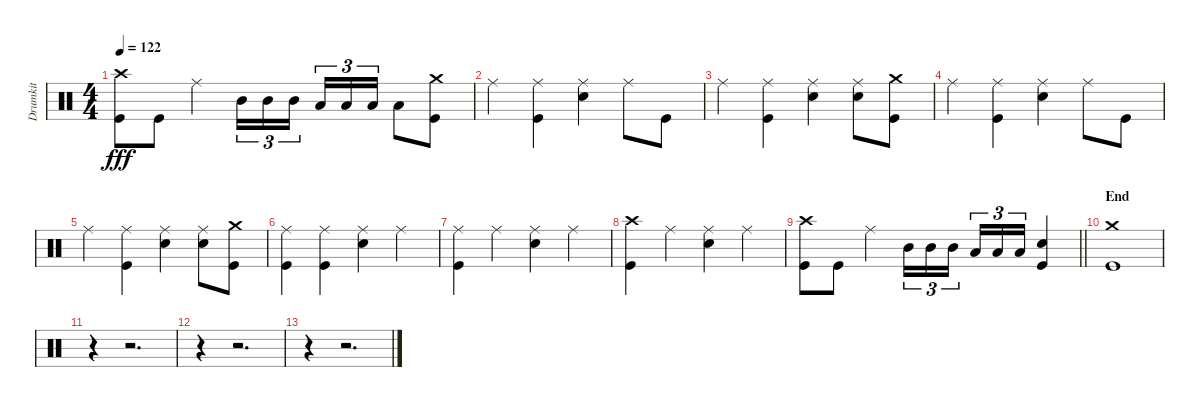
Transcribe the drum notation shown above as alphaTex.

\track ("Drumkit" "Drumkit") {mute instrument percussion}
\staff {score}
\articulation defaults
\ts (4 4)
\tempo 122
\clef neutral
\ks c
("Kick (hit)" "Crash high (hit)").8{dy fff} "Kick (hit)".8 "Ride (middle)".4 "Mid Tom (hit)".16{tu (3 2)} "Mid Tom (hit)".16{tu (3 2)} "Mid Tom (hit)".16{tu (3 2) beam splitsecondary} "Low Tom (hit)".16{tu (3 2)} "Low Tom (hit)".16{tu (3 2)} "Low Tom (hit)".16{tu (3 2)} "Low Tom (hit)".8 ("Crash medium (hit)" "Kick (hit)").8 |
"Ride (middle)".4 ("Ride (middle)" "Kick (hit)").4 ("Ride (middle)" "Snare (hit) 2").4 "Ride (middle)".8 "Kick (hit)".8 |
"Ride (middle)".4 ("Ride (middle)" "Kick (hit)").4 ("Ride (middle)" "Snare (hit) 2").4 ("Ride (middle)" "Snare (hit) 2").8 ("Kick (hit)" "Crash medium (hit)").8 |
"Ride (middle)".4 ("Ride (middle)" "Kick (hit)").4 ("Ride (middle)" "Snare (hit) 2").4 "Ride (middle)".8 "Kick (hit)".8 |
"Ride (middle)".4 ("Ride (middle)" "Kick (hit)").4 ("Ride (middle)" "Snare (hit) 2").4 ("Ride (middle)" "Snare (hit) 2").8 ("Kick (hit)" "Crash medium (hit)").8 |
("Ride (middle)" "Kick (hit)").4 ("Ride (middle)" "Kick (hit)").4 ("Ride (middle)" "Snare (hit) 2").4 "Ride (middle)".4 |
("Ride (middle)" "Kick (hit)").4 "Ride (middle)".4 ("Ride (middle)" "Snare (hit) 2").4 "Ride (middle)".4 |
("Kick (hit)" "Crash high (hit)").4 "Ride (middle)".4 ("Ride (middle)" "Snare (hit) 2").4 "Ride (middle)".4 |
\barLineRight lightlight
("Kick (hit)" "Crash high (hit)").8 "Kick (hit)".8 "Ride (middle)".4 "Mid Tom (hit)".16{tu (3 2)} "Mid Tom (hit)".16{tu (3 2)} "Mid Tom (hit)".16{tu (3 2) beam splitsecondary} "Low Tom (hit)".16{tu (3 2)} "Low Tom (hit)".16{tu (3 2)} "Low Tom (hit)".16{tu (3 2)} ("Snare (hit) 2" "Kick (hit)").4 |
\section ("" "End")
("Crash medium (hit)" "Kick (hit)").1 |
r.4 r.2{d} |
r.4 r.2{d} |
r.4 r.2{d}
